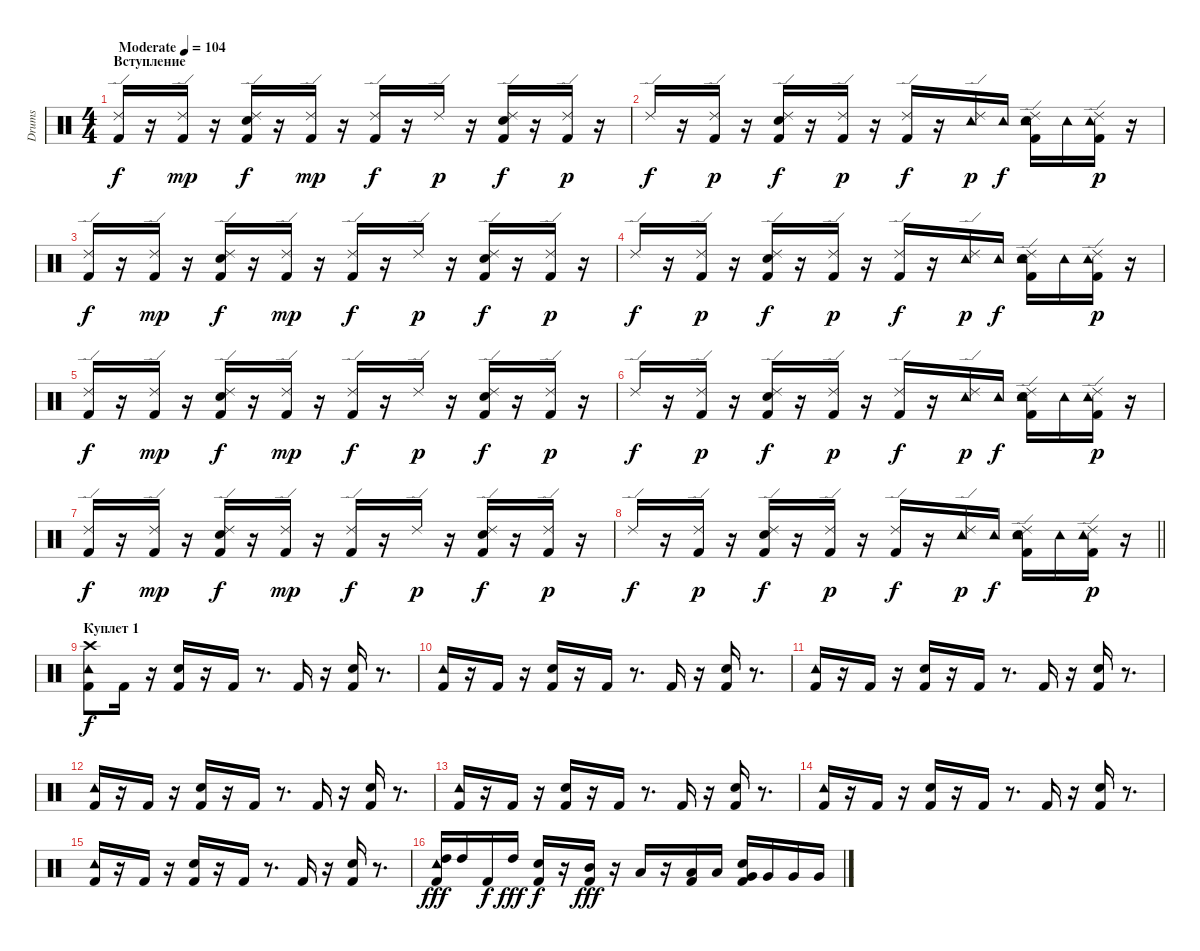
\track ("Drums" "Drums") {instrument percussion}
\staff {score}
\articulation defaults
\ts (4 4)
\section ("" "Вступление")
\tempo (104 "Moderate")
\clef neutral
\ks c
("Ride (edge) 2" "Kick (hit) 2").16{dy f} r.16 ("Ride (edge) 2" "Kick (hit) 2").16{dy mp} r.16 ("Ride (edge) 2" "Snare (hit) 2" "Kick (hit) 2").16{dy f} r.16 ("Ride (edge) 2" "Kick (hit) 2").16{dy mp} r.16 ("Ride (edge) 2" "Kick (hit) 2").16{dy f} r.16 "Ride (edge) 2".16{dy p} r.16 ("Ride (edge) 2" "Kick (hit) 2" "Snare (hit) 2").16{dy f} r.16 ("Ride (edge) 2" "Kick (hit) 2").16{dy p} r.16 |
"Ride (edge) 2".16{dy f} r.16 ("Ride (edge) 2" "Kick (hit) 2").16{dy p} r.16 ("Ride (edge) 2" "Kick (hit) 2" "Snare (hit) 2").16{dy f} r.16 ("Ride (edge) 2" "Kick (hit) 2").16{dy p} r.16 ("Ride (edge) 2" "Kick (hit) 2").16{dy f} r.16 ("Tambourine (hit)" "Ride (edge) 2").16{dy p} "Tambourine (hit)".16{dy f} ("Tambourine (hit)" "Ride (edge) 2" "Kick (hit) 2" "Snare (hit) 2").16 "Tambourine (hit)".16 ("Tambourine (hit)" "Ride (edge) 2" "Kick (hit) 2").16{dy p} r.16 |
("Ride (edge) 2" "Kick (hit) 2").16{dy f} r.16 ("Ride (edge) 2" "Kick (hit) 2").16{dy mp} r.16 ("Ride (edge) 2" "Snare (hit) 2" "Kick (hit) 2").16{dy f} r.16 ("Ride (edge) 2" "Kick (hit) 2").16{dy mp} r.16 ("Ride (edge) 2" "Kick (hit) 2").16{dy f} r.16 "Ride (edge) 2".16{dy p} r.16 ("Ride (edge) 2" "Kick (hit) 2" "Snare (hit) 2").16{dy f} r.16 ("Ride (edge) 2" "Kick (hit) 2").16{dy p} r.16 |
"Ride (edge) 2".16{dy f} r.16 ("Ride (edge) 2" "Kick (hit) 2").16{dy p} r.16 ("Ride (edge) 2" "Kick (hit) 2" "Snare (hit) 2").16{dy f} r.16 ("Ride (edge) 2" "Kick (hit) 2").16{dy p} r.16 ("Ride (edge) 2" "Kick (hit) 2").16{dy f} r.16 ("Tambourine (hit)" "Ride (edge) 2").16{dy p} "Tambourine (hit)".16{dy f} ("Tambourine (hit)" "Ride (edge) 2" "Kick (hit) 2" "Snare (hit) 2").16 "Tambourine (hit)".16 ("Tambourine (hit)" "Ride (edge) 2" "Kick (hit) 2").16{dy p} r.16 |
("Ride (edge) 2" "Kick (hit) 2").16{dy f} r.16 ("Ride (edge) 2" "Kick (hit) 2").16{dy mp} r.16 ("Ride (edge) 2" "Snare (hit) 2" "Kick (hit) 2").16{dy f} r.16 ("Ride (edge) 2" "Kick (hit) 2").16{dy mp} r.16 ("Ride (edge) 2" "Kick (hit) 2").16{dy f} r.16 "Ride (edge) 2".16{dy p} r.16 ("Ride (edge) 2" "Kick (hit) 2" "Snare (hit) 2").16{dy f} r.16 ("Ride (edge) 2" "Kick (hit) 2").16{dy p} r.16 |
"Ride (edge) 2".16{dy f} r.16 ("Ride (edge) 2" "Kick (hit) 2").16{dy p} r.16 ("Ride (edge) 2" "Kick (hit) 2" "Snare (hit) 2").16{dy f} r.16 ("Ride (edge) 2" "Kick (hit) 2").16{dy p} r.16 ("Ride (edge) 2" "Kick (hit) 2").16{dy f} r.16 ("Tambourine (hit)" "Ride (edge) 2").16{dy p} "Tambourine (hit)".16{dy f} ("Tambourine (hit)" "Ride (edge) 2" "Kick (hit) 2" "Snare (hit) 2").16 "Tambourine (hit)".16 ("Tambourine (hit)" "Ride (edge) 2" "Kick (hit) 2").16{dy p} r.16 |
("Ride (edge) 2" "Kick (hit) 2").16{dy f} r.16 ("Ride (edge) 2" "Kick (hit) 2").16{dy mp} r.16 ("Ride (edge) 2" "Snare (hit) 2" "Kick (hit) 2").16{dy f} r.16 ("Ride (edge) 2" "Kick (hit) 2").16{dy mp} r.16 ("Ride (edge) 2" "Kick (hit) 2").16{dy f} r.16 "Ride (edge) 2".16{dy p} r.16 ("Ride (edge) 2" "Kick (hit) 2" "Snare (hit) 2").16{dy f} r.16 ("Ride (edge) 2" "Kick (hit) 2").16{dy p} r.16 |
\barLineRight lightlight "Ride (edge) 2".16{dy f}
r.16 ("Ride (edge) 2" "Kick (hit) 2").16{dy p} r.16 ("Ride (edge) 2" "Kick (hit) 2" "Snare (hit) 2").16{dy f} r.16 ("Ride (edge) 2" "Kick (hit) 2").16{dy p} r.16 ("Ride (edge) 2" "Kick (hit) 2").16{dy f} r.16 ("Tambourine (hit)" "Ride (edge) 2").16{dy p} "Tambourine (hit)".16{dy f} ("Tambourine (hit)" "Ride (edge) 2" "Kick (hit) 2" "Snare (hit) 2").16 "Tambourine (hit)".16 ("Tambourine (hit)" "Ride (edge) 2" "Kick (hit) 2").16{dy p} r.16 |
\section ("" "Куплет 1")
("Tambourine (hit)" "Kick (hit) 2" "Crash high (hit)").8{dy f} "Kick (hit) 2".16 r.16 ("Kick (hit) 2" "Snare (hit) 2").16 r.16 "Kick (hit) 2".16 r.8{d} "Kick (hit) 2".16 r.16 ("Snare (hit) 2" "Kick (hit) 2").16 r.8{d} |
("Tambourine (hit)" "Kick (hit) 2").16 r.16 "Kick (hit) 2".16 r.16 ("Kick (hit) 2" "Snare (hit) 2").16 r.16 "Kick (hit) 2".16 r.8{d} "Kick (hit) 2".16 r.16 ("Snare (hit) 2" "Kick (hit) 2").16 r.8{d} |
("Tambourine (hit)" "Kick (hit) 2").16 r.16 "Kick (hit) 2".16 r.16 ("Kick (hit) 2" "Snare (hit) 2").16 r.16 "Kick (hit) 2".16 r.8{d} "Kick (hit) 2".16 r.16 ("Snare (hit) 2" "Kick (hit) 2").16 r.8{d} |
("Tambourine (hit)" "Kick (hit) 2").16 r.16 "Kick (hit) 2".16 r.16 ("Kick (hit) 2" "Snare (hit) 2").16 r.16 "Kick (hit) 2".16 r.8{d} "Kick (hit) 2".16 r.16 ("Snare (hit) 2" "Kick (hit) 2").16 r.8{d} |
("Tambourine (hit)" "Kick (hit) 2").16 r.16 "Kick (hit) 2".16 r.16 ("Kick (hit) 2" "Snare (hit) 2").16 r.16 "Kick (hit) 2".16 r.8{d} "Kick (hit) 2".16 r.16 ("Snare (hit) 2" "Kick (hit) 2").16 r.8{d} |
("Tambourine (hit)" "Kick (hit) 2").16 r.16 "Kick (hit) 2".16 r.16 ("Kick (hit) 2" "Snare (hit) 2").16 r.16 "Kick (hit) 2".16 r.8{d} "Kick (hit) 2".16 r.16 ("Snare (hit) 2" "Kick (hit) 2").16 r.8{d} |
("Tambourine (hit)" "Kick (hit) 2").16 r.16 "Kick (hit) 2".16 r.16 ("Kick (hit) 2" "Snare (hit) 2").16 r.16 "Kick (hit) 2".16 r.8{d} "Kick (hit) 2".16 r.16 ("Snare (hit) 2" "Kick (hit) 2").16 r.8{d} |
("High Tom (hit)" "Tambourine (hit)" "Kick (hit) 2").16{dy fff} "High Tom (hit)".16 "Kick (hit) 2".16{dy f} "High Tom (hit)".16{dy fff} ("Kick (hit) 2" "Snare (hit) 2").16{dy f} r.16 ("Mid Tom (hit)" "Kick (hit) 2").16{dy fff} r.16 "Low Tom (hit)".16 r.16 ("Kick (hit) 2" "Low Tom (hit)").16 "Low Tom (hit)".16 ("Snare (hit) 2" "Kick (hit) 2" "Very Low Tom (hit)").16 "Very Low Tom (hit)".16 "Very Low Tom (hit)".16 "Very Low Tom (hit)".16
